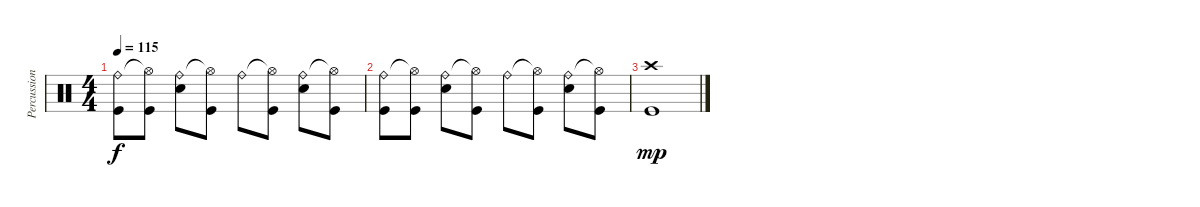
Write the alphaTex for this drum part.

\track ("Percussioni" "Percussion") {instrument percussion}
\staff {score}
\articulation defaults
\ts (4 4)
\tempo 115
\clef neutral
\ks c
("Ride (bell)" "Kick (hit)").8{dy f} ("Hi-Hat (open)"{t} "Kick (hit)").8 ("Ride (bell)" "Snare (hit) 2").8 ("Hi-Hat (open)"{t} "Kick (hit)").8 "Ride (bell)".8 ("Hi-Hat (open)"{t} "Kick (hit)").8 ("Ride (bell)" "Snare (hit) 2").8 ("Hi-Hat (open)"{t} "Kick (hit)").8 |
("Ride (bell)" "Kick (hit)").8 ("Hi-Hat (open)"{t} "Kick (hit)").8 ("Ride (bell)" "Snare (hit) 2").8 ("Hi-Hat (open)"{t} "Kick (hit)").8 "Ride (bell)".8 ("Hi-Hat (open)"{t} "Kick (hit)").8 ("Ride (bell)" "Snare (hit) 2").8 ("Hi-Hat (open)"{t} "Kick (hit)").8 |
("Crash high (hit)" "Kick (hit)").1{dy mp}
